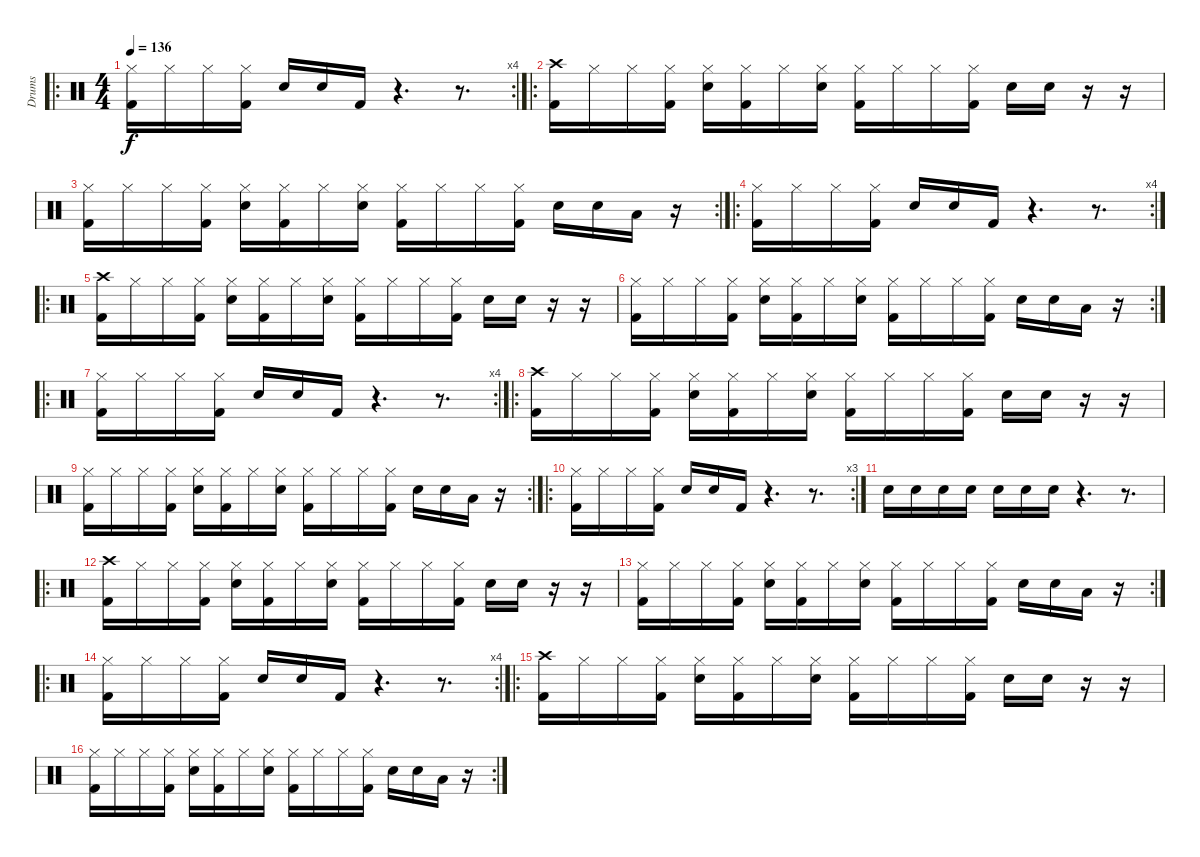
\track ("Drums" "Drums") {instrument percussion}
\staff {score}
\articulation defaults
\ro
\rc 4
\ts (4 4)
\tempo 136
\clef neutral
\ks c
("Hi-Hat (closed)" "Kick (hit) 2").16{dy f} "Hi-Hat (closed)".16 "Hi-Hat (closed)".16 ("Hi-Hat (closed)" "Kick (hit) 2").16 "Snare (hit) 2".16 "Snare (hit) 2".16 "Kick (hit) 2".16 r.4{d} r.8{d} |
\ro
("Crash high (hit)" "Kick (hit) 2").16 "Hi-Hat (closed)".16 "Hi-Hat (closed)".16 ("Hi-Hat (closed)" "Kick (hit) 2").16 ("Hi-Hat (closed)" "Snare (hit) 2").16 ("Hi-Hat (closed)" "Kick (hit) 2").16 "Hi-Hat (closed)".16 ("Hi-Hat (closed)" "Snare (hit) 2").16 ("Hi-Hat (closed)" "Kick (hit) 2").16 "Hi-Hat (closed)".16 "Hi-Hat (closed)".16 ("Hi-Hat (closed)" "Kick (hit) 2").16 "Snare (hit) 2".16 "Snare (hit) 2".16 r.16 r.16 |
\rc 2
("Hi-Hat (closed)" "Kick (hit) 2").16 "Hi-Hat (closed)".16 "Hi-Hat (closed)".16 ("Hi-Hat (closed)" "Kick (hit) 2").16 ("Hi-Hat (closed)" "Snare (hit) 2").16 ("Hi-Hat (closed)" "Kick (hit) 2").16 "Hi-Hat (closed)".16 ("Hi-Hat (closed)" "Snare (hit) 2").16 ("Hi-Hat (closed)" "Kick (hit) 2").16 "Hi-Hat (closed)".16 "Hi-Hat (closed)".16 ("Hi-Hat (closed)" "Kick (hit) 2").16 "Snare (hit) 2".16 "Snare (hit) 2".16 "Low Tom (hit)".16 r.16 |
\ro
\rc 4
("Hi-Hat (closed)" "Kick (hit) 2").16 "Hi-Hat (closed)".16 "Hi-Hat (closed)".16 ("Hi-Hat (closed)" "Kick (hit) 2").16 "Snare (hit) 2".16 "Snare (hit) 2".16 "Kick (hit) 2".16 r.4{d} r.8{d} |
\ro
("Crash high (hit)" "Kick (hit) 2").16 "Hi-Hat (closed)".16 "Hi-Hat (closed)".16 ("Hi-Hat (closed)" "Kick (hit) 2").16 ("Hi-Hat (closed)" "Snare (hit) 2").16 ("Hi-Hat (closed)" "Kick (hit) 2").16 "Hi-Hat (closed)".16 ("Hi-Hat (closed)" "Snare (hit) 2").16 ("Hi-Hat (closed)" "Kick (hit) 2").16 "Hi-Hat (closed)".16 "Hi-Hat (closed)".16 ("Hi-Hat (closed)" "Kick (hit) 2").16 "Snare (hit) 2".16 "Snare (hit) 2".16 r.16 r.16 |
\rc 2
("Hi-Hat (closed)" "Kick (hit) 2").16 "Hi-Hat (closed)".16 "Hi-Hat (closed)".16 ("Hi-Hat (closed)" "Kick (hit) 2").16 ("Hi-Hat (closed)" "Snare (hit) 2").16 ("Hi-Hat (closed)" "Kick (hit) 2").16 "Hi-Hat (closed)".16 ("Hi-Hat (closed)" "Snare (hit) 2").16 ("Hi-Hat (closed)" "Kick (hit) 2").16 "Hi-Hat (closed)".16 "Hi-Hat (closed)".16 ("Hi-Hat (closed)" "Kick (hit) 2").16 "Snare (hit) 2".16 "Snare (hit) 2".16 "Low Tom (hit)".16 r.16 |
\ro
\rc 4
("Hi-Hat (closed)" "Kick (hit) 2").16 "Hi-Hat (closed)".16 "Hi-Hat (closed)".16 ("Hi-Hat (closed)" "Kick (hit) 2").16 "Snare (hit) 2".16 "Snare (hit) 2".16 "Kick (hit) 2".16 r.4{d} r.8{d} |
\ro
("Crash high (hit)" "Kick (hit) 2").16 "Hi-Hat (closed)".16 "Hi-Hat (closed)".16 ("Hi-Hat (closed)" "Kick (hit) 2").16 ("Hi-Hat (closed)" "Snare (hit) 2").16 ("Hi-Hat (closed)" "Kick (hit) 2").16 "Hi-Hat (closed)".16 ("Hi-Hat (closed)" "Snare (hit) 2").16 ("Hi-Hat (closed)" "Kick (hit) 2").16 "Hi-Hat (closed)".16 "Hi-Hat (closed)".16 ("Hi-Hat (closed)" "Kick (hit) 2").16 "Snare (hit) 2".16 "Snare (hit) 2".16 r.16 r.16 |
\rc 2
("Hi-Hat (closed)" "Kick (hit) 2").16 "Hi-Hat (closed)".16 "Hi-Hat (closed)".16 ("Hi-Hat (closed)" "Kick (hit) 2").16 ("Hi-Hat (closed)" "Snare (hit) 2").16 ("Hi-Hat (closed)" "Kick (hit) 2").16 "Hi-Hat (closed)".16 ("Hi-Hat (closed)" "Snare (hit) 2").16 ("Hi-Hat (closed)" "Kick (hit) 2").16 "Hi-Hat (closed)".16 "Hi-Hat (closed)".16 ("Hi-Hat (closed)" "Kick (hit) 2").16 "Snare (hit) 2".16 "Snare (hit) 2".16 "Low Tom (hit)".16 r.16 |
\ro
\rc 3
("Hi-Hat (closed)" "Kick (hit) 2").16 "Hi-Hat (closed)".16 "Hi-Hat (closed)".16 ("Hi-Hat (closed)" "Kick (hit) 2").16 "Snare (hit) 2".16 "Snare (hit) 2".16 "Kick (hit) 2".16 r.4{d} r.8{d} |
"Snare (hit) 2".16 "Snare (hit) 2".16 "Snare (hit) 2".16 "Snare (hit) 2".16 "Snare (hit) 2".16 "Snare (hit) 2".16 "Snare (hit) 2".16 r.4{d} r.8{d} |
\ro
("Crash high (hit)" "Kick (hit) 2").16 "Hi-Hat (closed)".16 "Hi-Hat (closed)".16 ("Hi-Hat (closed)" "Kick (hit) 2").16 ("Hi-Hat (closed)" "Snare (hit) 2").16 ("Hi-Hat (closed)" "Kick (hit) 2").16 "Hi-Hat (closed)".16 ("Hi-Hat (closed)" "Snare (hit) 2").16 ("Hi-Hat (closed)" "Kick (hit) 2").16 "Hi-Hat (closed)".16 "Hi-Hat (closed)".16 ("Hi-Hat (closed)" "Kick (hit) 2").16 "Snare (hit) 2".16 "Snare (hit) 2".16 r.16 r.16 |
\rc 2
("Hi-Hat (closed)" "Kick (hit) 2").16 "Hi-Hat (closed)".16 "Hi-Hat (closed)".16 ("Hi-Hat (closed)" "Kick (hit) 2").16 ("Hi-Hat (closed)" "Snare (hit) 2").16 ("Hi-Hat (closed)" "Kick (hit) 2").16 "Hi-Hat (closed)".16 ("Hi-Hat (closed)" "Snare (hit) 2").16 ("Hi-Hat (closed)" "Kick (hit) 2").16 "Hi-Hat (closed)".16 "Hi-Hat (closed)".16 ("Hi-Hat (closed)" "Kick (hit) 2").16 "Snare (hit) 2".16 "Snare (hit) 2".16 "Low Tom (hit)".16 r.16 |
\ro
\rc 4
("Hi-Hat (closed)" "Kick (hit) 2").16 "Hi-Hat (closed)".16 "Hi-Hat (closed)".16 ("Hi-Hat (closed)" "Kick (hit) 2").16 "Snare (hit) 2".16 "Snare (hit) 2".16 "Kick (hit) 2".16 r.4{d} r.8{d} |
\ro
("Crash high (hit)" "Kick (hit) 2").16 "Hi-Hat (closed)".16 "Hi-Hat (closed)".16 ("Hi-Hat (closed)" "Kick (hit) 2").16 ("Hi-Hat (closed)" "Snare (hit) 2").16 ("Hi-Hat (closed)" "Kick (hit) 2").16 "Hi-Hat (closed)".16 ("Hi-Hat (closed)" "Snare (hit) 2").16 ("Hi-Hat (closed)" "Kick (hit) 2").16 "Hi-Hat (closed)".16 "Hi-Hat (closed)".16 ("Hi-Hat (closed)" "Kick (hit) 2").16 "Snare (hit) 2".16 "Snare (hit) 2".16 r.16 r.16 |
\rc 2
("Hi-Hat (closed)" "Kick (hit) 2").16 "Hi-Hat (closed)".16 "Hi-Hat (closed)".16 ("Hi-Hat (closed)" "Kick (hit) 2").16 ("Hi-Hat (closed)" "Snare (hit) 2").16 ("Hi-Hat (closed)" "Kick (hit) 2").16 "Hi-Hat (closed)".16 ("Hi-Hat (closed)" "Snare (hit) 2").16 ("Hi-Hat (closed)" "Kick (hit) 2").16 "Hi-Hat (closed)".16 "Hi-Hat (closed)".16 ("Hi-Hat (closed)" "Kick (hit) 2").16 "Snare (hit) 2".16 "Snare (hit) 2".16 "Low Tom (hit)".16 r.16
